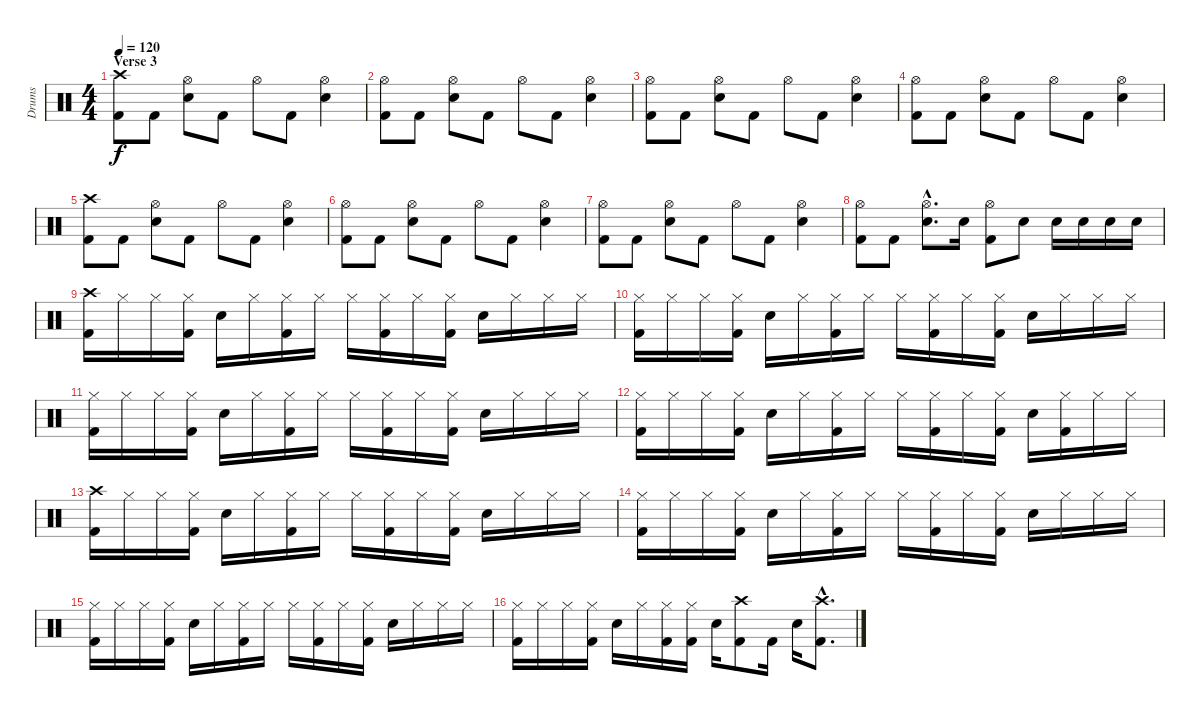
\track ("Drums" "Drums") {instrument percussion}
\staff {score}
\articulation defaults
\ts (4 4)
\section ("" "Verse 3")
\tempo 120
\clef neutral
\ks c
("Crash high (hit)" "Kick (hit) 2").8{dy f} "Kick (hit) 2".8 ("Hi-Hat (open)" "Electric Snare (hit)").8 "Kick (hit) 2".8 "Hi-Hat (open)".8 "Kick (hit) 2".8 ("Hi-Hat (open)" "Electric Snare (hit)").4 |
("Hi-Hat (open)" "Kick (hit) 2").8 "Kick (hit) 2".8 ("Hi-Hat (open)" "Electric Snare (hit)").8 "Kick (hit) 2".8 "Hi-Hat (open)".8 "Kick (hit) 2".8 ("Hi-Hat (open)" "Electric Snare (hit)").4 |
("Hi-Hat (open)" "Kick (hit) 2").8 "Kick (hit) 2".8 ("Hi-Hat (open)" "Electric Snare (hit)").8 "Kick (hit) 2".8 "Hi-Hat (open)".8 "Kick (hit) 2".8 ("Hi-Hat (open)" "Electric Snare (hit)").4 |
("Hi-Hat (open)" "Kick (hit) 2").8 "Kick (hit) 2".8 ("Hi-Hat (open)" "Electric Snare (hit)").8 "Kick (hit) 2".8 "Hi-Hat (open)".8 "Kick (hit) 2".8 ("Hi-Hat (open)" "Electric Snare (hit)").4 |
("Crash high (hit)" "Kick (hit) 2").8 "Kick (hit) 2".8 ("Hi-Hat (open)" "Electric Snare (hit)").8 "Kick (hit) 2".8 "Hi-Hat (open)".8 "Kick (hit) 2".8 ("Hi-Hat (open)" "Electric Snare (hit)").4 |
("Hi-Hat (open)" "Kick (hit) 2").8 "Kick (hit) 2".8 ("Hi-Hat (open)" "Electric Snare (hit)").8 "Kick (hit) 2".8 "Hi-Hat (open)".8 "Kick (hit) 2".8 ("Hi-Hat (open)" "Electric Snare (hit)").4 |
("Hi-Hat (open)" "Kick (hit) 2").8 "Kick (hit) 2".8 ("Hi-Hat (open)" "Electric Snare (hit)").8 "Kick (hit) 2".8 "Hi-Hat (open)".8 "Kick (hit) 2".8 ("Hi-Hat (open)" "Electric Snare (hit)").4 |
("Hi-Hat (open)" "Kick (hit) 2").8 "Kick (hit) 2".8 ("Hi-Hat (open)"{hac} "Electric Snare (hit)"{hac}).8{d} "Electric Snare (hit)".16 ("Hi-Hat (open)" "Kick (hit) 2").8 "Electric Snare (hit)".8 "Electric Snare (hit)".16 "Electric Snare (hit)".16 "Electric Snare (hit)".16 "Electric Snare (hit)".16 |
("Crash high (hit)" "Kick (hit) 2").16 "Hi-Hat (closed)".16 "Hi-Hat (closed)".16 ("Hi-Hat (closed)" "Kick (hit) 2").16 "Electric Snare (hit)".16 "Hi-Hat (closed)".16 ("Hi-Hat (closed)" "Kick (hit) 2").16 "Hi-Hat (closed)".16 "Hi-Hat (closed)".16 ("Hi-Hat (closed)" "Kick (hit) 2").16 "Hi-Hat (closed)".16 ("Hi-Hat (closed)" "Kick (hit) 2").16 "Electric Snare (hit)".16 "Hi-Hat (closed)".16 "Hi-Hat (closed)".16 "Hi-Hat (closed)".16 |
("Hi-Hat (closed)" "Kick (hit) 2").16 "Hi-Hat (closed)".16 "Hi-Hat (closed)".16 ("Hi-Hat (closed)" "Kick (hit) 2").16 "Electric Snare (hit)".16 "Hi-Hat (closed)".16 ("Hi-Hat (closed)" "Kick (hit) 2").16 "Hi-Hat (closed)".16 "Hi-Hat (closed)".16 ("Hi-Hat (closed)" "Kick (hit) 2").16 "Hi-Hat (closed)".16 ("Hi-Hat (closed)" "Kick (hit) 2").16 "Electric Snare (hit)".16 "Hi-Hat (closed)".16 "Hi-Hat (closed)".16 "Hi-Hat (closed)".16 |
("Hi-Hat (closed)" "Kick (hit) 2").16 "Hi-Hat (closed)".16 "Hi-Hat (closed)".16 ("Hi-Hat (closed)" "Kick (hit) 2").16 "Electric Snare (hit)".16 "Hi-Hat (closed)".16 ("Hi-Hat (closed)" "Kick (hit) 2").16 "Hi-Hat (closed)".16 "Hi-Hat (closed)".16 ("Hi-Hat (closed)" "Kick (hit) 2").16 "Hi-Hat (closed)".16 ("Hi-Hat (closed)" "Kick (hit) 2").16 "Electric Snare (hit)".16 "Hi-Hat (closed)".16 "Hi-Hat (closed)".16 "Hi-Hat (closed)".16 |
("Hi-Hat (closed)" "Kick (hit) 2").16 "Hi-Hat (closed)".16 "Hi-Hat (closed)".16 ("Hi-Hat (closed)" "Kick (hit) 2").16 "Electric Snare (hit)".16 "Hi-Hat (closed)".16 ("Hi-Hat (closed)" "Kick (hit) 2").16 "Hi-Hat (closed)".16 "Hi-Hat (closed)".16 ("Hi-Hat (closed)" "Kick (hit) 2").16 "Hi-Hat (closed)".16 ("Hi-Hat (closed)" "Kick (hit) 2").16 "Electric Snare (hit)".16 ("Hi-Hat (closed)" "Kick (hit) 2").16 "Hi-Hat (closed)".16 "Hi-Hat (closed)".16 |
("Crash high (hit)" "Kick (hit) 2").16 "Hi-Hat (closed)".16 "Hi-Hat (closed)".16 ("Hi-Hat (closed)" "Kick (hit) 2").16 "Electric Snare (hit)".16 "Hi-Hat (closed)".16 ("Hi-Hat (closed)" "Kick (hit) 2").16 "Hi-Hat (closed)".16 "Hi-Hat (closed)".16 ("Hi-Hat (closed)" "Kick (hit) 2").16 "Hi-Hat (closed)".16 ("Hi-Hat (closed)" "Kick (hit) 2").16 "Electric Snare (hit)".16 "Hi-Hat (closed)".16 "Hi-Hat (closed)".16 "Hi-Hat (closed)".16 |
("Hi-Hat (closed)" "Kick (hit) 2").16 "Hi-Hat (closed)".16 "Hi-Hat (closed)".16 ("Hi-Hat (closed)" "Kick (hit) 2").16 "Electric Snare (hit)".16 "Hi-Hat (closed)".16 ("Hi-Hat (closed)" "Kick (hit) 2").16 "Hi-Hat (closed)".16 "Hi-Hat (closed)".16 ("Hi-Hat (closed)" "Kick (hit) 2").16 "Hi-Hat (closed)".16 ("Hi-Hat (closed)" "Kick (hit) 2").16 "Electric Snare (hit)".16 "Hi-Hat (closed)".16 "Hi-Hat (closed)".16 "Hi-Hat (closed)".16 |
("Hi-Hat (closed)" "Kick (hit) 2").16 "Hi-Hat (closed)".16 "Hi-Hat (closed)".16 ("Hi-Hat (closed)" "Kick (hit) 2").16 "Electric Snare (hit)".16 "Hi-Hat (closed)".16 ("Hi-Hat (closed)" "Kick (hit) 2").16 "Hi-Hat (closed)".16 "Hi-Hat (closed)".16 ("Hi-Hat (closed)" "Kick (hit) 2").16 "Hi-Hat (closed)".16 ("Hi-Hat (closed)" "Kick (hit) 2").16 "Electric Snare (hit)".16 "Hi-Hat (closed)".16 "Hi-Hat (closed)".16 "Hi-Hat (closed)".16 |
("Hi-Hat (closed)" "Kick (hit) 2").16 "Hi-Hat (closed)".16 "Hi-Hat (closed)".16 ("Hi-Hat (closed)" "Kick (hit) 2").16 "Electric Snare (hit)".16 "Hi-Hat (closed)".16 ("Hi-Hat (closed)" "Kick (hit) 2").16 ("Hi-Hat (closed)" "Kick (hit) 2").16 "Electric Snare (hit)".16 ("Crash high (hit)" "Kick (hit) 2").8 "Kick (hit) 2".16 "Electric Snare (hit)".16 ("Crash high (hit)"{hac} "Kick (hit) 2"{hac}).8{d}
